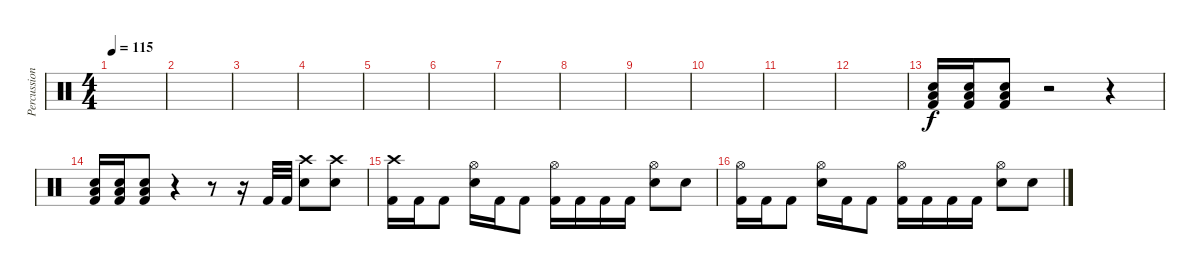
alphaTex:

\track ("Percussion" "Percussion") {instrument percussion}
\staff {score}
\articulation defaults
\ts (4 4)
\tempo 115
\clef neutral
\ks c
|
|
|
|
|
|
|
|
|
|
|
|
("Electric Snare (hit)" "Low Tom (hit)" "Kick (hit) 2").16{dy f} ("Electric Snare (hit)" "Low Tom (hit)" "Kick (hit) 2").16 ("Electric Snare (hit)" "Low Tom (hit)" "Kick (hit) 2").8 r.2 r.4 |
("Electric Snare (hit)" "Low Tom (hit)" "Kick (hit) 2").16 ("Electric Snare (hit)" "Low Tom (hit)" "Kick (hit) 2").16 ("Electric Snare (hit)" "Low Tom (hit)" "Kick (hit) 2").8 r.4 r.8 r.16 "Kick (hit) 2".32 "Kick (hit) 2".32 ("Electric Snare (hit)" "Crash high (hit)").8 ("Electric Snare (hit)" "Crash high (hit)").8 |
("Kick (hit) 2" "Crash high (hit)").16 "Kick (hit) 2".16 "Kick (hit) 2".8 ("Electric Snare (hit)" "Hi-Hat (open)").16 "Kick (hit) 2".16 "Kick (hit) 2".8 ("Kick (hit) 2" "Hi-Hat (open)").16 "Kick (hit) 2".16 "Kick (hit) 2".16 "Kick (hit) 2".16 ("Electric Snare (hit)" "Hi-Hat (open)").8 "Electric Snare (hit)".8 |
("Kick (hit) 2" "Hi-Hat (open)").16 "Kick (hit) 2".16 "Kick (hit) 2".8 ("Electric Snare (hit)" "Hi-Hat (open)").16 "Kick (hit) 2".16 "Kick (hit) 2".8 ("Kick (hit) 2" "Hi-Hat (open)").16 "Kick (hit) 2".16 "Kick (hit) 2".16 "Kick (hit) 2".16 ("Electric Snare (hit)" "Hi-Hat (open)").8 "Electric Snare (hit)".8
